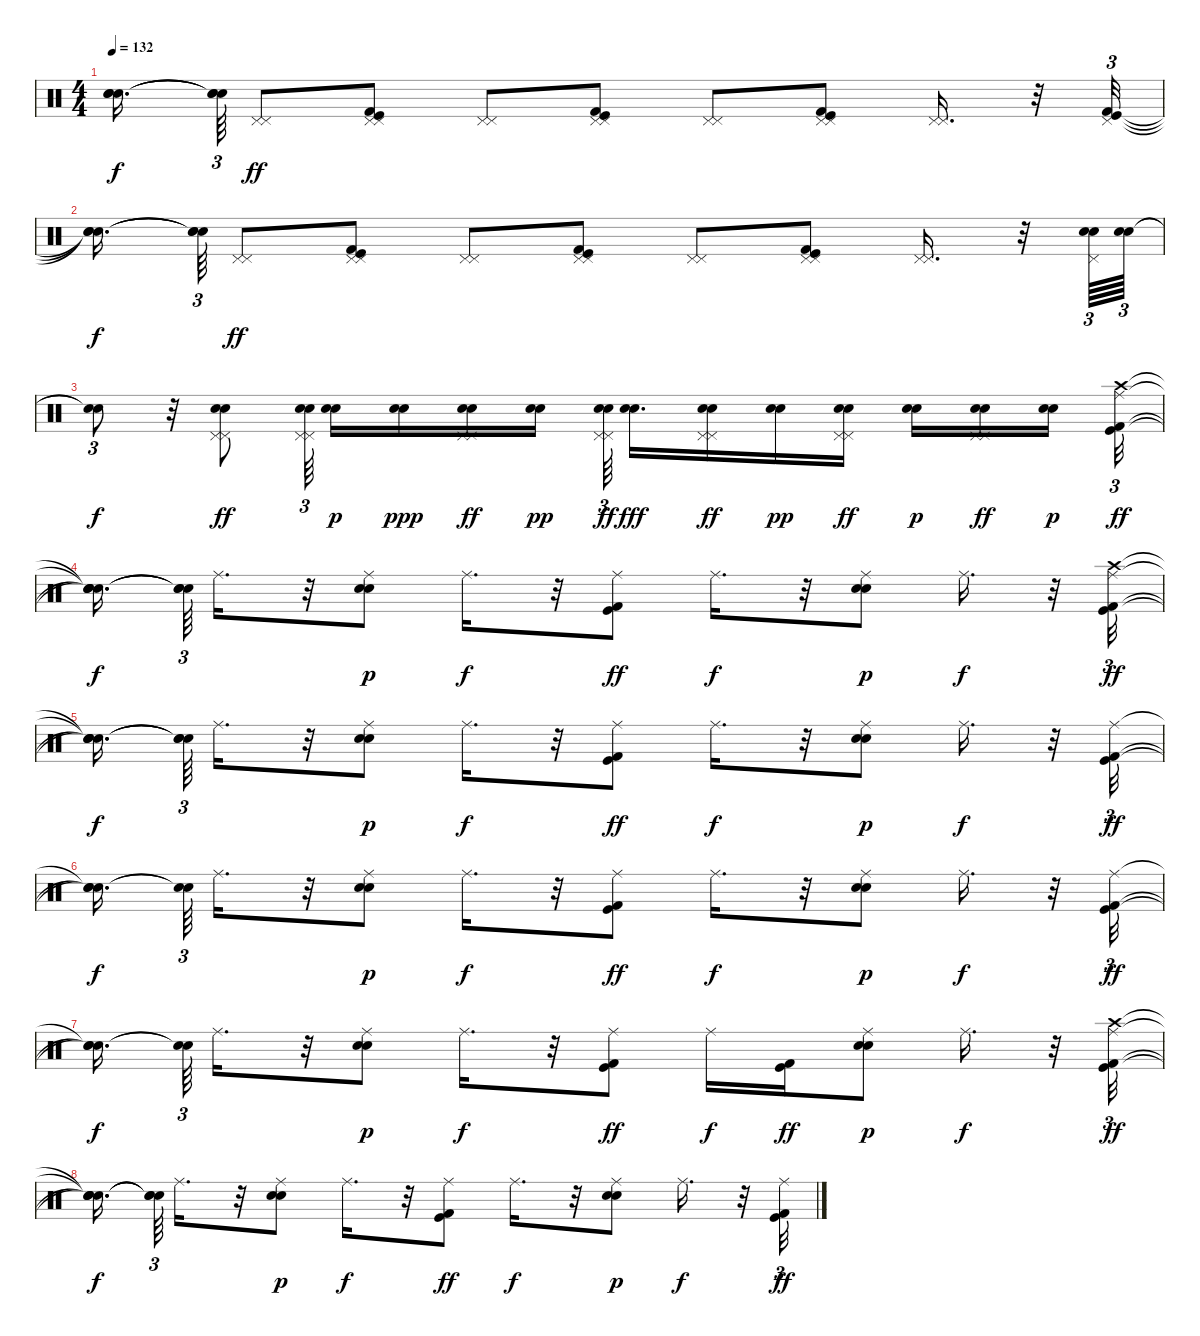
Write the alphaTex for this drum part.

\track "" {instrument percussion}
\staff {score}
\articulation defaults
\ts (4 4)
\tempo 132
\clef neutral
\ks c
("Snare (hit)"{t} "Snare (hit)"{t} "Snare (hit)"{t}).16{d dy f beam splitsecondary} ("Snare (hit)"{t} "Snare (hit)"{t} "Snare (hit)"{t}).64{tu (3 2)} ("Pedal Hi-Hat (hit)" "Pedal Hi-Hat (hit)").8{dy ff} ("Kick (hit)" "Kick (hit) 2" "Pedal Hi-Hat (hit)" "Pedal Hi-Hat (hit)").8 ("Pedal Hi-Hat (hit)" "Pedal Hi-Hat (hit)").8 ("Kick (hit) 2" "Kick (hit)" "Pedal Hi-Hat (hit)" "Pedal Hi-Hat (hit)").8 ("Pedal Hi-Hat (hit)" "Pedal Hi-Hat (hit)").8 ("Kick (hit)" "Kick (hit) 2" "Pedal Hi-Hat (hit)" "Pedal Hi-Hat (hit)").8 ("Pedal Hi-Hat (hit)" "Pedal Hi-Hat (hit)").16{d} r.32 ("Kick (hit) 2" "Kick (hit)" "Pedal Hi-Hat (hit)").32{tu (3 2)} |
("Snare (hit)"{t} "Snare (hit)"{t} "Snare (hit)"{t}).16{d dy f beam splitsecondary} ("Snare (hit)"{t} "Snare (hit)"{t} "Snare (hit)"{t}).64{tu (3 2)} ("Pedal Hi-Hat (hit)" "Pedal Hi-Hat (hit)").8{dy ff} ("Kick (hit)" "Kick (hit) 2" "Pedal Hi-Hat (hit)" "Pedal Hi-Hat (hit)").8 ("Pedal Hi-Hat (hit)" "Pedal Hi-Hat (hit)").8 ("Kick (hit) 2" "Kick (hit)" "Pedal Hi-Hat (hit)" "Pedal Hi-Hat (hit)").8 ("Pedal Hi-Hat (hit)" "Pedal Hi-Hat (hit)").8 ("Kick (hit)" "Kick (hit) 2" "Pedal Hi-Hat (hit)" "Pedal Hi-Hat (hit)").8 ("Pedal Hi-Hat (hit)" "Pedal Hi-Hat (hit)").16{d} r.32 ("Electric Snare (hit)" "Snare (hit) 2" "Pedal Hi-Hat (hit)").64{tu (3 2)} ("Snare (hit) 2" "Electric Snare (hit)").64{tu (3 2)} |
("Snare (hit)"{t} "Snare (hit)"{t}).8{tu (3 2) dy f} r.32 ("Electric Snare (hit)" "Snare (hit) 2" "Pedal Hi-Hat (hit)" "Pedal Hi-Hat (hit)").8{dy ff} ("Electric Snare (hit)" "Snare (hit) 2" "Pedal Hi-Hat (hit)" "Pedal Hi-Hat (hit)").64{tu (3 2)} ("Snare (hit) 2" "Electric Snare (hit)").16{dy p} ("Electric Snare (hit)" "Snare (hit) 2").16{dy ppp} ("Electric Snare (hit)" "Snare (hit) 2" "Pedal Hi-Hat (hit)" "Pedal Hi-Hat (hit)").16{dy ff} ("Electric Snare (hit)" "Snare (hit) 2").16{dy pp} ("Electric Snare (hit)" "Snare (hit) 2" "Pedal Hi-Hat (hit)" "Pedal Hi-Hat (hit)").64{tu (3 2) dy ff beam splitsecondary} ("Snare (hit) 2" "Electric Snare (hit)").16{d dy fff} ("Electric Snare (hit)" "Snare (hit) 2" "Pedal Hi-Hat (hit)" "Pedal Hi-Hat (hit)").16{dy ff} ("Electric Snare (hit)" "Snare (hit) 2").16{dy pp} ("Electric Snare (hit)" "Snare (hit) 2" "Pedal Hi-Hat (hit)" "Pedal Hi-Hat (hit)").16{dy ff} ("Electric Snare (hit)" "Snare (hit) 2").16{dy p} ("Electric Snare (hit)" "Snare (hit) 2" "Pedal Hi-Hat (hit)" "Pedal Hi-Hat (hit)").16{dy ff} ("Electric Snare (hit)" "Snare (hit) 2").16{dy p beam splitsecondary} ("Kick (hit) 2" "Kick (hit)" "Crash high (hit)" "Ride (middle)").32{tu (3 2) dy ff} |
("Snare (hit)"{t} "Snare (hit)"{t} "Snare (hit)"{t} "Snare (hit)"{t}).16{d dy f beam splitsecondary} ("Snare (hit)"{t} "Snare (hit)"{t} "Snare (hit)"{t}).64{tu (3 2)} "Ride (middle)".16{d} r.32 ("Electric Snare (hit)" "Snare (hit) 2" "Ride (middle)").8{dy p} "Ride (middle)".16{d dy f} r.32 ("Kick (hit) 2" "Kick (hit)" "Ride (middle)").8{dy ff} "Ride (middle)".16{d dy f} r.32 ("Electric Snare (hit)" "Snare (hit) 2" "Ride (middle)").8{dy p} "Ride (middle)".16{d dy f} r.32 ("Kick (hit) 2" "Kick (hit)" "Crash high (hit)" "Ride (middle)").32{tu (3 2) dy ff} |
("Snare (hit)"{t} "Snare (hit)"{t} "Snare (hit)"{t} "Snare (hit)"{t}).16{d dy f beam splitsecondary} ("Snare (hit)"{t} "Snare (hit)"{t} "Snare (hit)"{t}).64{tu (3 2)} "Ride (middle)".16{d} r.32 ("Electric Snare (hit)" "Snare (hit) 2" "Ride (middle)").8{dy p} "Ride (middle)".16{d dy f} r.32 ("Kick (hit) 2" "Kick (hit)" "Ride (middle)").8{dy ff} "Ride (middle)".16{d dy f} r.32 ("Electric Snare (hit)" "Snare (hit) 2" "Ride (middle)").8{dy p} "Ride (middle)".16{d dy f} r.32 ("Kick (hit) 2" "Kick (hit)" "Ride (middle)").32{tu (3 2) dy ff} |
("Snare (hit)"{t} "Snare (hit)"{t} "Snare (hit)"{t}).16{d dy f beam splitsecondary} ("Snare (hit)"{t} "Snare (hit)"{t}).64{tu (3 2)} "Ride (middle)".16{d} r.32 ("Electric Snare (hit)" "Snare (hit) 2" "Ride (middle)").8{dy p} "Ride (middle)".16{d dy f} r.32 ("Kick (hit) 2" "Kick (hit)" "Ride (middle)").8{dy ff} "Ride (middle)".16{d dy f} r.32 ("Electric Snare (hit)" "Snare (hit) 2" "Ride (middle)").8{dy p} "Ride (middle)".16{d dy f} r.32 ("Kick (hit) 2" "Kick (hit)" "Ride (middle)").32{tu (3 2) dy ff} |
("Snare (hit)"{t} "Snare (hit)"{t} "Snare (hit)"{t}).16{d dy f beam splitsecondary} ("Snare (hit)"{t} "Snare (hit)"{t}).64{tu (3 2)} "Ride (middle)".16{d} r.32 ("Electric Snare (hit)" "Snare (hit) 2" "Ride (middle)").8{dy p} "Ride (middle)".16{d dy f} r.32 ("Kick (hit) 2" "Kick (hit)" "Ride (middle)").8{dy ff} "Ride (middle)".16{dy f} ("Kick (hit) 2" "Kick (hit)").16{dy ff} ("Electric Snare (hit)" "Snare (hit) 2" "Ride (middle)").8{dy p} "Ride (middle)".16{d dy f} r.32 ("Kick (hit) 2" "Kick (hit)" "Crash high (hit)" "Ride (middle)").32{tu (3 2) dy ff} |
("Snare (hit)"{t} "Snare (hit)"{t} "Snare (hit)"{t} "Snare (hit)"{t}).16{d dy f beam splitsecondary} ("Snare (hit)"{t} "Snare (hit)"{t} "Snare (hit)"{t}).64{tu (3 2)} "Ride (middle)".16{d} r.32 ("Electric Snare (hit)" "Snare (hit) 2" "Ride (middle)").8{dy p} "Ride (middle)".16{d dy f} r.32 ("Kick (hit) 2" "Kick (hit)" "Ride (middle)").8{dy ff} "Ride (middle)".16{d dy f} r.32 ("Electric Snare (hit)" "Snare (hit) 2" "Ride (middle)").8{dy p} "Ride (middle)".16{d dy f} r.32 ("Kick (hit) 2" "Kick (hit)" "Ride (middle)").32{tu (3 2) dy ff}
